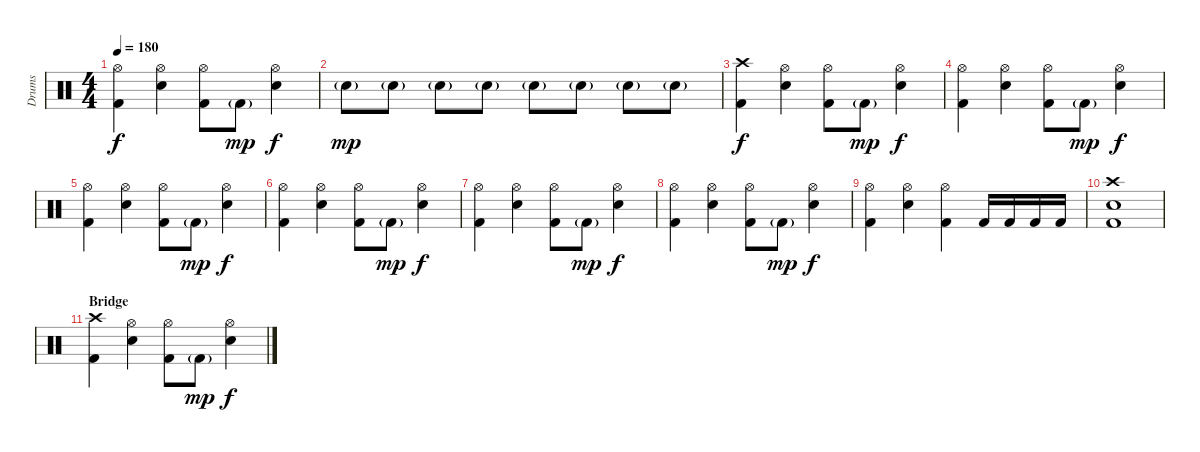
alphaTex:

\track ("Drums" "Drums") {instrument percussion}
\staff {score}
\articulation defaults
\ts (4 4)
\tempo 180
\clef neutral
\ks c
("Hi-Hat (open)" "Kick (hit) 2").4{dy f} ("Hi-Hat (open)" "Electric Snare (hit)").4 ("Hi-Hat (open)" "Kick (hit) 2").8 "Kick (hit) 2"{g}.8{dy mp} ("Hi-Hat (open)" "Electric Snare (hit)").4{dy f} |
"Electric Snare (hit)"{g}.8{dy mp} "Electric Snare (hit)"{g}.8 "Electric Snare (hit)"{g}.8 "Electric Snare (hit)"{g}.8 "Electric Snare (hit)"{g}.8 "Electric Snare (hit)"{g}.8 "Electric Snare (hit)"{g}.8 "Electric Snare (hit)"{g}.8 |
("Crash high (hit)" "Kick (hit) 2").4{dy f} ("Hi-Hat (open)" "Electric Snare (hit)").4 ("Hi-Hat (open)" "Kick (hit) 2").8 "Kick (hit) 2"{g}.8{dy mp} ("Hi-Hat (open)" "Electric Snare (hit)").4{dy f} |
("Hi-Hat (open)" "Kick (hit) 2").4 ("Hi-Hat (open)" "Electric Snare (hit)").4 ("Hi-Hat (open)" "Kick (hit) 2").8 "Kick (hit) 2"{g}.8{dy mp} ("Hi-Hat (open)" "Electric Snare (hit)").4{dy f} |
("Hi-Hat (open)" "Kick (hit) 2").4 ("Hi-Hat (open)" "Electric Snare (hit)").4 ("Hi-Hat (open)" "Kick (hit) 2").8 "Kick (hit) 2"{g}.8{dy mp} ("Hi-Hat (open)" "Electric Snare (hit)").4{dy f} |
("Hi-Hat (open)" "Kick (hit) 2").4 ("Hi-Hat (open)" "Electric Snare (hit)").4 ("Hi-Hat (open)" "Kick (hit) 2").8 "Kick (hit) 2"{g}.8{dy mp} ("Hi-Hat (open)" "Electric Snare (hit)").4{dy f} |
("Hi-Hat (open)" "Kick (hit) 2").4 ("Hi-Hat (open)" "Electric Snare (hit)").4 ("Hi-Hat (open)" "Kick (hit) 2").8 "Kick (hit) 2"{g}.8{dy mp} ("Hi-Hat (open)" "Electric Snare (hit)").4{dy f} |
("Hi-Hat (open)" "Kick (hit) 2").4 ("Hi-Hat (open)" "Electric Snare (hit)").4 ("Hi-Hat (open)" "Kick (hit) 2").8 "Kick (hit) 2"{g}.8{dy mp} ("Hi-Hat (open)" "Electric Snare (hit)").4{dy f} |
("Hi-Hat (open)" "Kick (hit) 2").4 ("Hi-Hat (open)" "Electric Snare (hit)").4 ("Hi-Hat (open)" "Kick (hit) 2").4 "Kick (hit) 2".16 "Kick (hit) 2".16 "Kick (hit) 2".16 "Kick (hit) 2".16 |
("Crash high (hit)" "Electric Snare (hit)" "Kick (hit) 2").1 |
\section ("" "Bridge")
("Crash high (hit)" "Kick (hit) 2").4 ("Hi-Hat (open)" "Electric Snare (hit)").4 ("Hi-Hat (open)" "Kick (hit) 2").8 "Kick (hit) 2"{g}.8{dy mp} ("Hi-Hat (open)" "Electric Snare (hit)").4{dy f}
